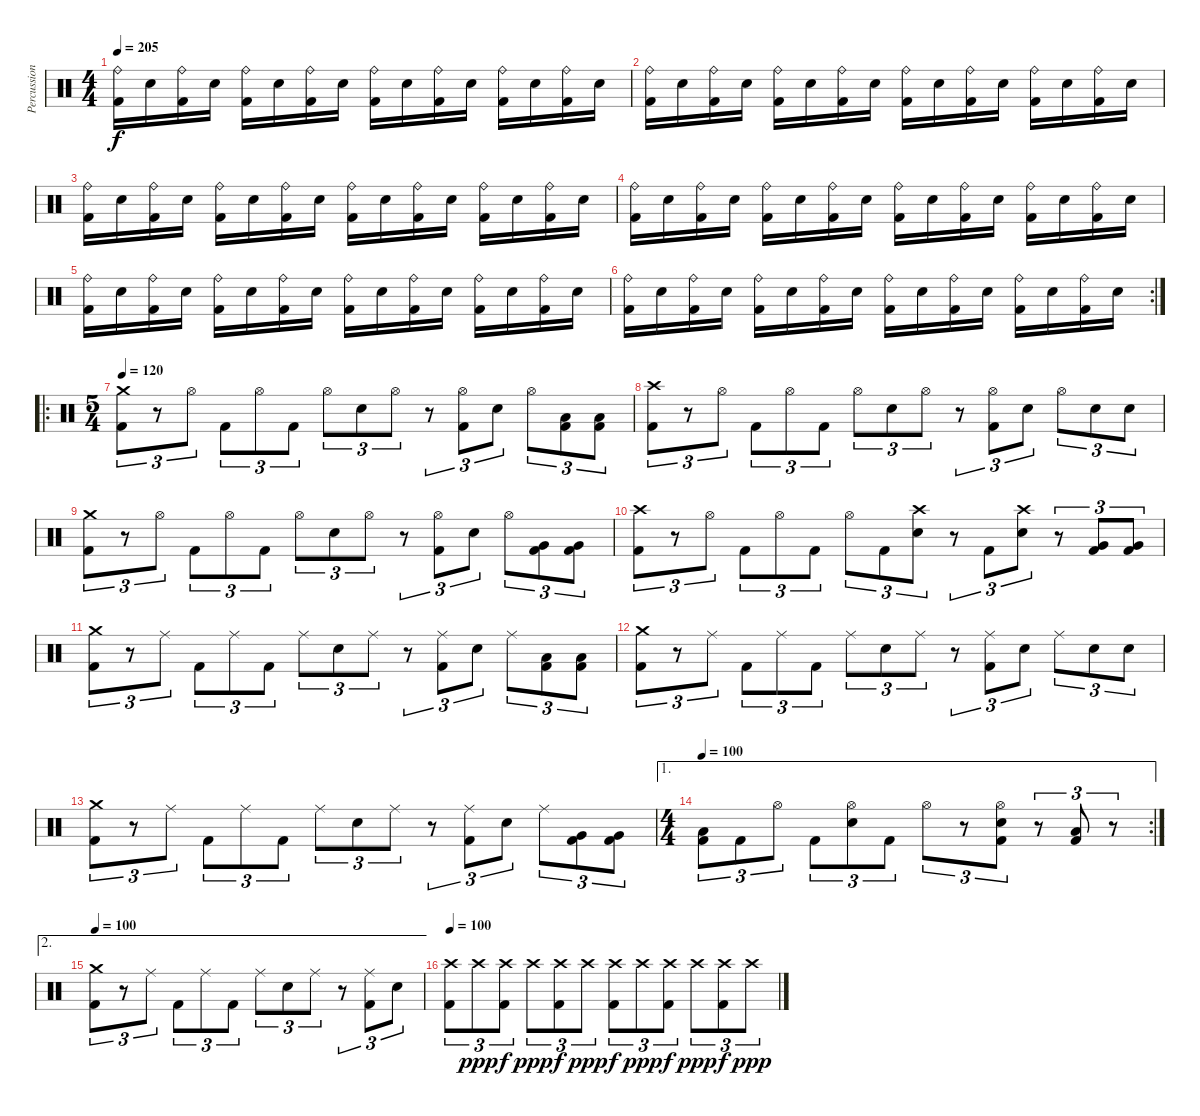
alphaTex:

\track ("Percussion" "Percussion") {instrument percussion}
\staff {score}
\articulation defaults
\ts (4 4)
\tempo 205
\clef neutral
\ks c
("Ride (bell)" "Kick (hit) 2").16{dy f} "Electric Snare (hit)".16 ("Ride (bell)" "Kick (hit) 2").16 "Electric Snare (hit)".16 ("Ride (bell)" "Kick (hit) 2").16 "Electric Snare (hit)".16 ("Ride (bell)" "Kick (hit) 2").16 "Electric Snare (hit)".16 ("Ride (bell)" "Kick (hit) 2").16 "Electric Snare (hit)".16 ("Ride (bell)" "Kick (hit) 2").16 "Electric Snare (hit)".16 ("Ride (bell)" "Kick (hit) 2").16 "Electric Snare (hit)".16 ("Ride (bell)" "Kick (hit) 2").16 "Electric Snare (hit)".16 |
("Ride (bell)" "Kick (hit) 2").16 "Electric Snare (hit)".16 ("Ride (bell)" "Kick (hit) 2").16 "Electric Snare (hit)".16 ("Ride (bell)" "Kick (hit) 2").16 "Electric Snare (hit)".16 ("Ride (bell)" "Kick (hit) 2").16 "Electric Snare (hit)".16 ("Ride (bell)" "Kick (hit) 2").16 "Electric Snare (hit)".16 ("Ride (bell)" "Kick (hit) 2").16 "Electric Snare (hit)".16 ("Ride (bell)" "Kick (hit) 2").16 "Electric Snare (hit)".16 ("Ride (bell)" "Kick (hit) 2").16 "Electric Snare (hit)".16 |
("Ride (bell)" "Kick (hit) 2").16 "Electric Snare (hit)".16 ("Ride (bell)" "Kick (hit) 2").16 "Electric Snare (hit)".16 ("Ride (bell)" "Kick (hit) 2").16 "Electric Snare (hit)".16 ("Ride (bell)" "Kick (hit) 2").16 "Electric Snare (hit)".16 ("Ride (bell)" "Kick (hit) 2").16 "Electric Snare (hit)".16 ("Ride (bell)" "Kick (hit) 2").16 "Electric Snare (hit)".16 ("Ride (bell)" "Kick (hit) 2").16 "Electric Snare (hit)".16 ("Ride (bell)" "Kick (hit) 2").16 "Electric Snare (hit)".16 |
("Ride (bell)" "Kick (hit) 2").16 "Electric Snare (hit)".16 ("Ride (bell)" "Kick (hit) 2").16 "Electric Snare (hit)".16 ("Ride (bell)" "Kick (hit) 2").16 "Electric Snare (hit)".16 ("Ride (bell)" "Kick (hit) 2").16 "Electric Snare (hit)".16 ("Ride (bell)" "Kick (hit) 2").16 "Electric Snare (hit)".16 ("Ride (bell)" "Kick (hit) 2").16 "Electric Snare (hit)".16 ("Ride (bell)" "Kick (hit) 2").16 "Electric Snare (hit)".16 ("Ride (bell)" "Kick (hit) 2").16 "Electric Snare (hit)".16 |
("Ride (bell)" "Kick (hit) 2").16 "Electric Snare (hit)".16 ("Ride (bell)" "Kick (hit) 2").16 "Electric Snare (hit)".16 ("Ride (bell)" "Kick (hit) 2").16 "Electric Snare (hit)".16 ("Ride (bell)" "Kick (hit) 2").16 "Electric Snare (hit)".16 ("Ride (bell)" "Kick (hit) 2").16 "Electric Snare (hit)".16 ("Ride (bell)" "Kick (hit) 2").16 "Electric Snare (hit)".16 ("Ride (bell)" "Kick (hit) 2").16 "Electric Snare (hit)".16 ("Ride (bell)" "Kick (hit) 2").16 "Electric Snare (hit)".16 |
\rc 2
("Ride (bell)" "Kick (hit) 2").16 "Electric Snare (hit)".16 ("Ride (bell)" "Kick (hit) 2").16 "Electric Snare (hit)".16 ("Ride (bell)" "Kick (hit) 2").16 "Electric Snare (hit)".16 ("Ride (bell)" "Kick (hit) 2").16 "Electric Snare (hit)".16 ("Ride (bell)" "Kick (hit) 2").16 "Electric Snare (hit)".16 ("Ride (bell)" "Kick (hit) 2").16 "Electric Snare (hit)".16 ("Ride (bell)" "Kick (hit) 2").16 "Electric Snare (hit)".16 ("Ride (bell)" "Kick (hit) 2").16 "Electric Snare (hit)".16 |
\ro
\ts (5 4)
\tempo 120
("Crash medium (hit)" "Kick (hit) 2").8{tu (3 2)} r.8{tu (3 2)} "Hi-Hat (open)".8{tu (3 2)} "Kick (hit) 2".8{tu (3 2)} "Hi-Hat (open)".8{tu (3 2)} "Kick (hit) 2".8{tu (3 2)} "Hi-Hat (open)".8{tu (3 2)} "Electric Snare (hit)".8{tu (3 2)} "Hi-Hat (open)".8{tu (3 2)} r.8{tu (3 2)} ("Hi-Hat (open)" "Kick (hit) 2").8{tu (3 2)} "Electric Snare (hit)".8{tu (3 2)} "Hi-Hat (open)".8{tu (3 2)} ("Low Tom (hit)" "Kick (hit) 2").8{tu (3 2)} ("Low Tom (hit)" "Kick (hit) 2").8{tu (3 2)} |
("Crash high (hit)" "Kick (hit) 2").8{tu (3 2)} r.8{tu (3 2)} "Hi-Hat (open)".8{tu (3 2)} "Kick (hit) 2".8{tu (3 2)} "Hi-Hat (open)".8{tu (3 2)} "Kick (hit) 2".8{tu (3 2)} "Hi-Hat (open)".8{tu (3 2)} "Electric Snare (hit)".8{tu (3 2)} "Hi-Hat (open)".8{tu (3 2)} r.8{tu (3 2)} ("Hi-Hat (open)" "Kick (hit) 2").8{tu (3 2)} "Electric Snare (hit)".8{tu (3 2)} "Hi-Hat (open)".8{tu (3 2)} "Electric Snare (hit)".8{tu (3 2)} "Electric Snare (hit)".8{tu (3 2)} |
("Crash medium (hit)" "Kick (hit) 2").8{tu (3 2)} r.8{tu (3 2)} "Hi-Hat (open)".8{tu (3 2)} "Kick (hit) 2".8{tu (3 2)} "Hi-Hat (open)".8{tu (3 2)} "Kick (hit) 2".8{tu (3 2)} "Hi-Hat (open)".8{tu (3 2)} "Electric Snare (hit)".8{tu (3 2)} "Hi-Hat (open)".8{tu (3 2)} r.8{tu (3 2)} ("Hi-Hat (open)" "Kick (hit) 2").8{tu (3 2)} "Electric Snare (hit)".8{tu (3 2)} "Hi-Hat (open)".8{tu (3 2)} ("Very Low Tom (hit)" "Kick (hit) 2").8{tu (3 2)} ("Very Low Tom (hit)" "Kick (hit) 2").8{tu (3 2)} |
("Crash high (hit)" "Kick (hit) 2").8{tu (3 2)} r.8{tu (3 2)} "Hi-Hat (open)".8{tu (3 2)} "Kick (hit) 2".8{tu (3 2)} "Hi-Hat (open)".8{tu (3 2)} "Kick (hit) 2".8{tu (3 2)} "Hi-Hat (open)".8{tu (3 2)} "Kick (hit) 2".8{tu (3 2)} ("Crash high (hit)" "Electric Snare (hit)").8{tu (3 2)} r.8{tu (3 2)} "Kick (hit) 2".8{tu (3 2)} ("Crash high (hit)" "Electric Snare (hit)").8{tu (3 2)} r.8{tu (3 2)} ("Very Low Tom (hit)" "Kick (hit) 2").8{tu (3 2)} ("Very Low Tom (hit)" "Kick (hit) 2").8{tu (3 2)} |
("Crash medium (hit)" "Kick (hit) 2").8{tu (3 2)} r.8{tu (3 2)} "Ride (middle)".8{tu (3 2)} "Kick (hit) 2".8{tu (3 2)} "Ride (middle)".8{tu (3 2)} "Kick (hit) 2".8{tu (3 2)} "Ride (middle)".8{tu (3 2)} "Electric Snare (hit)".8{tu (3 2)} "Ride (middle)".8{tu (3 2)} r.8{tu (3 2)} ("Ride (middle)" "Kick (hit) 2").8{tu (3 2)} "Electric Snare (hit)".8{tu (3 2)} "Ride (middle)".8{tu (3 2)} ("Low Tom (hit)" "Kick (hit) 2").8{tu (3 2)} ("Low Tom (hit)" "Kick (hit) 2").8{tu (3 2)} |
("Crash medium (hit)" "Kick (hit) 2").8{tu (3 2)} r.8{tu (3 2)} "Ride (middle)".8{tu (3 2)} "Kick (hit) 2".8{tu (3 2)} "Ride (middle)".8{tu (3 2)} "Kick (hit) 2".8{tu (3 2)} "Ride (middle)".8{tu (3 2)} "Electric Snare (hit)".8{tu (3 2)} "Ride (middle)".8{tu (3 2)} r.8{tu (3 2)} ("Ride (middle)" "Kick (hit) 2").8{tu (3 2)} "Electric Snare (hit)".8{tu (3 2)} "Ride (middle)".8{tu (3 2)} "Electric Snare (hit)".8{tu (3 2)} "Electric Snare (hit)".8{tu (3 2)} |
("Crash medium (hit)" "Kick (hit) 2").8{tu (3 2)} r.8{tu (3 2)} "Ride (middle)".8{tu (3 2)} "Kick (hit) 2".8{tu (3 2)} "Ride (middle)".8{tu (3 2)} "Kick (hit) 2".8{tu (3 2)} "Ride (middle)".8{tu (3 2)} "Electric Snare (hit)".8{tu (3 2)} "Ride (middle)".8{tu (3 2)} r.8{tu (3 2)} ("Ride (middle)" "Kick (hit) 2").8{tu (3 2)} "Electric Snare (hit)".8{tu (3 2)} "Ride (middle)".8{tu (3 2)} ("Very Low Tom (hit)" "Kick (hit) 2").8{tu (3 2)} ("Very Low Tom (hit)" "Kick (hit) 2").8{tu (3 2)} |
\ae 1
\rc 2
\ts (4 4)
\tempo 100
("Low Tom (hit)" "Kick (hit) 2").8{tu (3 2)} "Kick (hit) 2".8{tu (3 2)} "Hi-Hat (open)".8{tu (3 2)} "Kick (hit) 2".8{tu (3 2)} ("Hi-Hat (open)" "Electric Snare (hit)").8{tu (3 2)} "Kick (hit) 2".8{tu (3 2)} "Hi-Hat (open)".8{tu (3 2)} r.8{tu (3 2)} ("Hi-Hat (open)" "Electric Snare (hit)" "Kick (hit) 2").8{tu (3 2)} r.8{tu (3 2)} ("Low Tom (hit)" "Kick (hit) 2").8{tu (3 2)} r.8{tu (3 2)} |
\ae 2
\tempo 100
("Crash medium (hit)" "Kick (hit) 2").8{tu (3 2)} r.8{tu (3 2)} "Ride (middle)".8{tu (3 2)} "Kick (hit) 2".8{tu (3 2)} "Ride (middle)".8{tu (3 2)} "Kick (hit) 2".8{tu (3 2)} "Ride (middle)".8{tu (3 2)} "Electric Snare (hit)".8{tu (3 2)} "Ride (middle)".8{tu (3 2)} r.8{tu (3 2)} ("Ride (middle)" "Kick (hit) 2").8{tu (3 2)} "Electric Snare (hit)".8{tu (3 2)} |
\tempo 100
("Crash high (hit)" "Kick (hit) 2").8{tu (3 2)} "Crash high (hit)".8{tu (3 2) dy ppp} ("Crash high (hit)" "Kick (hit) 2").8{tu (3 2) dy f} "Crash high (hit)".8{tu (3 2) dy ppp} ("Crash high (hit)" "Kick (hit) 2").8{tu (3 2) dy f} "Crash high (hit)".8{tu (3 2) dy ppp} ("Crash high (hit)" "Kick (hit) 2").8{tu (3 2) dy f} "Crash high (hit)".8{tu (3 2) dy ppp} ("Crash high (hit)" "Kick (hit) 2").8{tu (3 2) dy f} "Crash high (hit)".8{tu (3 2) dy ppp} ("Crash high (hit)" "Kick (hit) 2").8{tu (3 2) dy f} "Crash high (hit)".8{tu (3 2) dy ppp}
